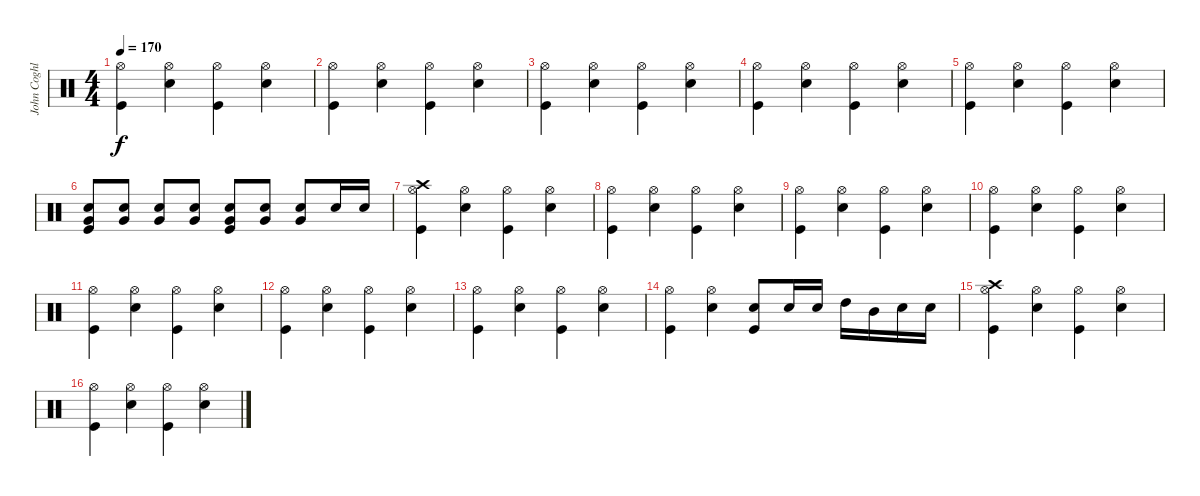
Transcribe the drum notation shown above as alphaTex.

\track ("John Coghlan" "John Coghl") {instrument percussion}
\staff {score}
\articulation defaults
\ts (4 4)
\tempo 170
\clef neutral
\ks c
("Hi-Hat (open)" "Kick (hit)").4{dy f} ("Electric Snare (hit)" "Hi-Hat (open)").4 ("Hi-Hat (open)" "Kick (hit)").4 ("Electric Snare (hit)" "Hi-Hat (open)").4 |
("Hi-Hat (open)" "Kick (hit)").4 ("Electric Snare (hit)" "Hi-Hat (open)").4 ("Hi-Hat (open)" "Kick (hit)").4 ("Electric Snare (hit)" "Hi-Hat (open)").4 |
("Hi-Hat (open)" "Kick (hit)").4 ("Electric Snare (hit)" "Hi-Hat (open)").4 ("Hi-Hat (open)" "Kick (hit)").4 ("Electric Snare (hit)" "Hi-Hat (open)").4 |
("Hi-Hat (open)" "Kick (hit)").4 ("Electric Snare (hit)" "Hi-Hat (open)").4 ("Hi-Hat (open)" "Kick (hit)").4 ("Electric Snare (hit)" "Hi-Hat (open)").4 |
("Hi-Hat (open)" "Kick (hit)").4 ("Electric Snare (hit)" "Hi-Hat (open)").4 ("Hi-Hat (open)" "Kick (hit)").4 ("Electric Snare (hit)" "Hi-Hat (open)").4 |
("Electric Snare (hit)" "Very Low Tom (hit)" "Kick (hit)").8 ("Electric Snare (hit)" "Very Low Tom (hit)").8 ("Electric Snare (hit)" "Very Low Tom (hit)").8 ("Electric Snare (hit)" "Very Low Tom (hit)").8 ("Electric Snare (hit)" "Very Low Tom (hit)" "Kick (hit)").8 ("Electric Snare (hit)" "Very Low Tom (hit)").8 ("Electric Snare (hit)" "Very Low Tom (hit)").8 "Electric Snare (hit)".16 "Electric Snare (hit)".16 |
("Crash high (hit)" "Hi-Hat (open)" "Kick (hit)").4 ("Hi-Hat (open)" "Electric Snare (hit)").4 ("Hi-Hat (open)" "Kick (hit)").4 ("Hi-Hat (open)" "Electric Snare (hit)").4 |
("Hi-Hat (open)" "Kick (hit)").4 ("Hi-Hat (open)" "Electric Snare (hit)").4 ("Hi-Hat (open)" "Kick (hit)").4 ("Hi-Hat (open)" "Electric Snare (hit)").4 |
("Hi-Hat (open)" "Kick (hit)").4 ("Hi-Hat (open)" "Electric Snare (hit)").4 ("Hi-Hat (open)" "Kick (hit)").4 ("Hi-Hat (open)" "Electric Snare (hit)").4 |
("Hi-Hat (open)" "Kick (hit)").4 ("Hi-Hat (open)" "Electric Snare (hit)").4 ("Hi-Hat (open)" "Kick (hit)").4 ("Hi-Hat (open)" "Electric Snare (hit)").4 |
("Hi-Hat (open)" "Kick (hit)").4 ("Hi-Hat (open)" "Electric Snare (hit)").4 ("Hi-Hat (open)" "Kick (hit)").4 ("Hi-Hat (open)" "Electric Snare (hit)").4 |
("Hi-Hat (open)" "Kick (hit)").4 ("Hi-Hat (open)" "Electric Snare (hit)").4 ("Hi-Hat (open)" "Kick (hit)").4 ("Hi-Hat (open)" "Electric Snare (hit)").4 |
("Hi-Hat (open)" "Kick (hit)").4 ("Hi-Hat (open)" "Electric Snare (hit)").4 ("Hi-Hat (open)" "Kick (hit)").4 ("Hi-Hat (open)" "Electric Snare (hit)").4 |
("Hi-Hat (open)" "Kick (hit)").4 ("Hi-Hat (open)" "Electric Snare (hit)").4 ("Electric Snare (hit)" "Kick (hit)").8 "Electric Snare (hit)".16 "Electric Snare (hit)".16 "High Tom (hit)".16 "Mid Tom (hit)".16 "Electric Snare (hit)".16 "Electric Snare (hit)".16 |
("Crash high (hit)" "Hi-Hat (open)" "Kick (hit)").4 ("Hi-Hat (open)" "Electric Snare (hit)").4 ("Hi-Hat (open)" "Kick (hit)").4 ("Hi-Hat (open)" "Electric Snare (hit)").4 |
("Hi-Hat (open)" "Kick (hit)").4 ("Hi-Hat (open)" "Electric Snare (hit)").4 ("Hi-Hat (open)" "Kick (hit)").4 ("Hi-Hat (open)" "Electric Snare (hit)").4
